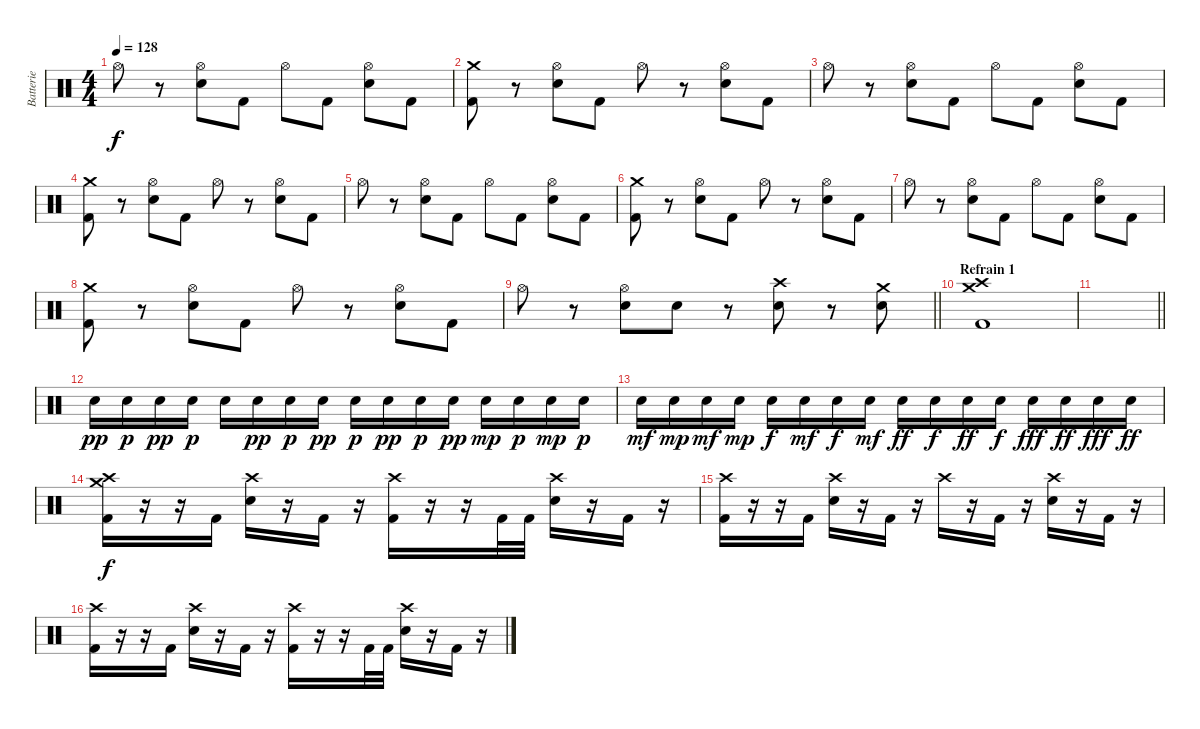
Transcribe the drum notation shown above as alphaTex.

\track ("Batterie" "Batterie") {instrument percussion}
\staff {score}
\articulation defaults
\ts (4 4)
\tempo 128
\clef neutral
\ks c "Hi-Hat (open)".8{dy f}
r.8 ("Electric Snare (hit)" "Hi-Hat (open)").8 "Kick (hit) 2".8 "Hi-Hat (open)".8 "Kick (hit) 2".8 ("Electric Snare (hit)" "Hi-Hat (open)").8 "Kick (hit) 2".8 |
("Kick (hit) 2" "Crash medium (hit)").8 r.8 ("Electric Snare (hit)" "Hi-Hat (open)").8 "Kick (hit) 2".8 "Hi-Hat (open)".8 r.8 ("Electric Snare (hit)" "Hi-Hat (open)").8 "Kick (hit) 2".8 |
"Hi-Hat (open)".8 r.8 ("Electric Snare (hit)" "Hi-Hat (open)").8 "Kick (hit) 2".8 "Hi-Hat (open)".8 "Kick (hit) 2".8 ("Electric Snare (hit)" "Hi-Hat (open)").8 "Kick (hit) 2".8 |
("Kick (hit) 2" "Crash medium (hit)").8 r.8 ("Electric Snare (hit)" "Hi-Hat (open)").8 "Kick (hit) 2".8 "Hi-Hat (open)".8 r.8 ("Electric Snare (hit)" "Hi-Hat (open)").8 "Kick (hit) 2".8 |
"Hi-Hat (open)".8 r.8 ("Electric Snare (hit)" "Hi-Hat (open)").8 "Kick (hit) 2".8 "Hi-Hat (open)".8 "Kick (hit) 2".8 ("Electric Snare (hit)" "Hi-Hat (open)").8 "Kick (hit) 2".8 |
("Kick (hit) 2" "Crash medium (hit)").8 r.8 ("Electric Snare (hit)" "Hi-Hat (open)").8 "Kick (hit) 2".8 "Hi-Hat (open)".8 r.8 ("Electric Snare (hit)" "Hi-Hat (open)").8 "Kick (hit) 2".8 |
"Hi-Hat (open)".8 r.8 ("Electric Snare (hit)" "Hi-Hat (open)").8 "Kick (hit) 2".8 "Hi-Hat (open)".8 "Kick (hit) 2".8 ("Electric Snare (hit)" "Hi-Hat (open)").8 "Kick (hit) 2".8 |
("Kick (hit) 2" "Crash medium (hit)").8 r.8 ("Electric Snare (hit)" "Hi-Hat (open)").8 "Kick (hit) 2".8 "Hi-Hat (open)".8 r.8 ("Electric Snare (hit)" "Hi-Hat (open)").8 "Kick (hit) 2".8 |
\barLineRight lightlight "Hi-Hat (open)".8
r.8 ("Electric Snare (hit)" "Hi-Hat (open)").8 "Electric Snare (hit)".8 r.8 ("Electric Snare (hit)" "Crash high (hit)").8 r.8 ("Electric Snare (hit)" "Crash medium (hit)").8 |
\section ("" "Refrain 1")
("Kick (hit) 2" "Crash medium (hit)" "Crash high (hit)").1 |
\barLineRight lightlight
|
"Electric Snare (hit)".16{dy pp} "Electric Snare (hit)".16{dy p} "Electric Snare (hit)".16{dy pp} "Electric Snare (hit)".16{dy p} "Electric Snare (hit)".16 "Electric Snare (hit)".16{dy pp} "Electric Snare (hit)".16{dy p} "Electric Snare (hit)".16{dy pp} "Electric Snare (hit)".16{dy p} "Electric Snare (hit)".16{dy pp} "Electric Snare (hit)".16{dy p} "Electric Snare (hit)".16{dy pp} "Electric Snare (hit)".16{dy mp} "Electric Snare (hit)".16{dy p} "Electric Snare (hit)".16{dy mp} "Electric Snare (hit)".16{dy p} |
"Electric Snare (hit)".16{dy mf} "Electric Snare (hit)".16{dy mp} "Electric Snare (hit)".16{dy mf} "Electric Snare (hit)".16{dy mp} "Electric Snare (hit)".16{dy f} "Electric Snare (hit)".16{dy mf} "Electric Snare (hit)".16{dy f} "Electric Snare (hit)".16{dy mf} "Electric Snare (hit)".16{dy ff} "Electric Snare (hit)".16{dy f} "Electric Snare (hit)".16{dy ff} "Electric Snare (hit)".16{dy f} "Electric Snare (hit)".16{dy fff} "Electric Snare (hit)".16{dy ff} "Electric Snare (hit)".16{dy fff} "Electric Snare (hit)".16{dy ff} |
("Kick (hit) 2" "Crash medium (hit)" "Crash high (hit)").16{dy f} r.16 r.16 "Kick (hit) 2".16 ("Electric Snare (hit)" "Crash high (hit)").16 r.16 "Kick (hit) 2".16 r.16 ("Kick (hit) 2" "Crash high (hit)").16 r.16 r.16 "Kick (hit) 2".32 "Kick (hit) 2".32 ("Electric Snare (hit)" "Crash high (hit)").16 r.16 "Kick (hit) 2".16 r.16 |
("Kick (hit) 2" "Crash high (hit)").16 r.16 r.16 "Kick (hit) 2".16 ("Electric Snare (hit)" "Crash high (hit)").16 r.16 "Kick (hit) 2".16 r.16 "Crash high (hit)".16 r.16 "Kick (hit) 2".16 r.16 ("Electric Snare (hit)" "Crash high (hit)").16 r.16 "Kick (hit) 2".16 r.16 |
("Kick (hit) 2" "Crash high (hit)").16 r.16 r.16 "Kick (hit) 2".16 ("Electric Snare (hit)" "Crash high (hit)").16 r.16 "Kick (hit) 2".16 r.16 ("Kick (hit) 2" "Crash high (hit)").16 r.16 r.16 "Kick (hit) 2".32 "Kick (hit) 2".32 ("Electric Snare (hit)" "Crash high (hit)").16 r.16 "Kick (hit) 2".16 r.16
